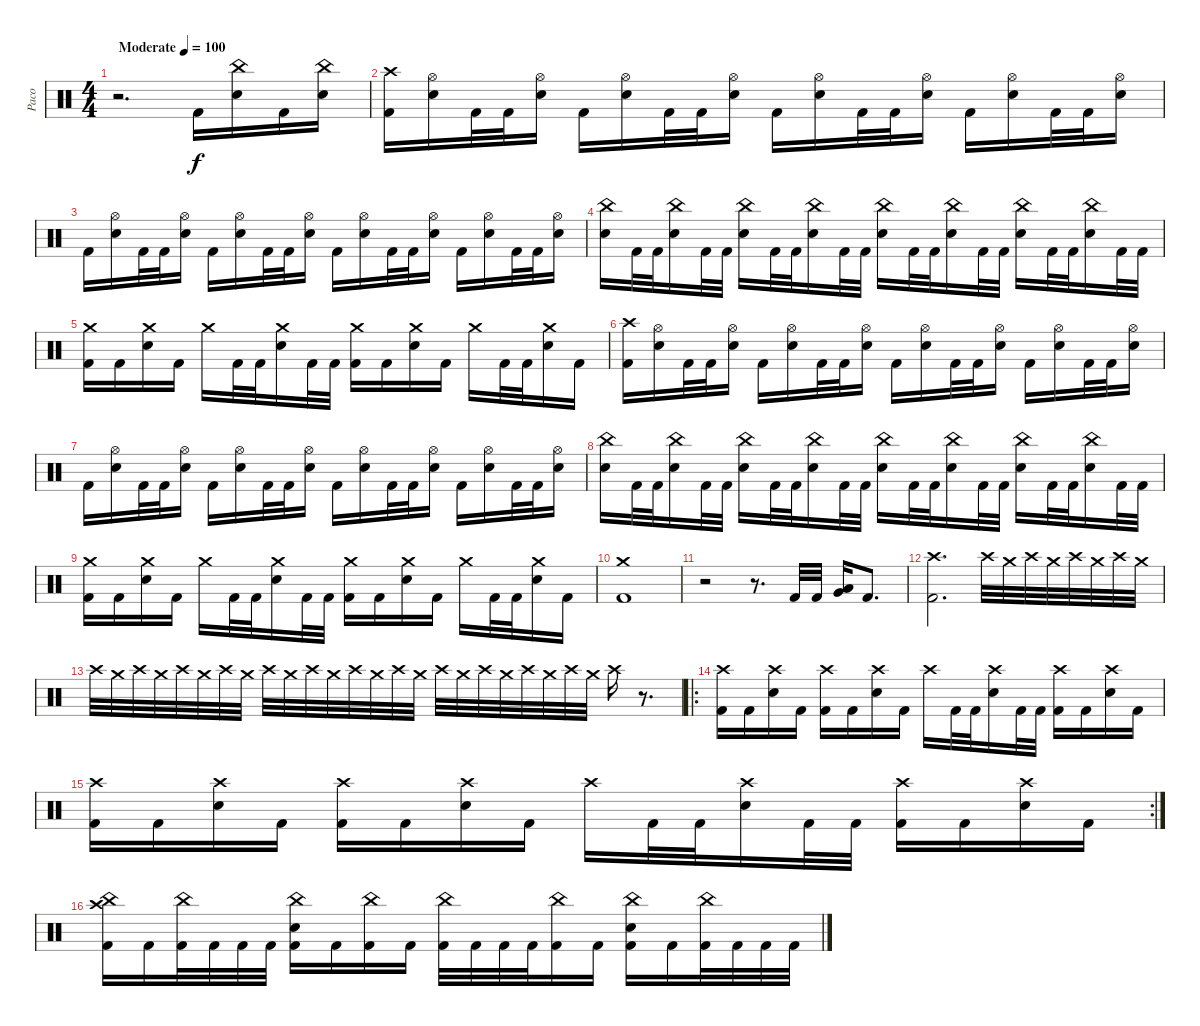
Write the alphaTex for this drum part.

\track ("Paco" "Paco") {instrument percussion}
\staff {score}
\articulation defaults
\ts (4 4)
\tempo (100 "Moderate")
\clef neutral
\ks c
r.2{d dy f} "Kick (hit) 2".16 ("China (hit)" "Electric Snare (hit)").16 "Kick (hit) 2".16 ("China (hit)" "Electric Snare (hit)").16 |
("Crash high (hit)" "Kick (hit) 2").16 ("Hi-Hat (open)" "Electric Snare (hit)").16 "Kick (hit) 2".32 "Kick (hit) 2".32 ("Hi-Hat (open)" "Electric Snare (hit)").16 "Kick (hit) 2".16 ("Hi-Hat (open)" "Electric Snare (hit)").16 "Kick (hit) 2".32 "Kick (hit) 2".32 ("Hi-Hat (open)" "Electric Snare (hit)").16 "Kick (hit) 2".16 ("Hi-Hat (open)" "Electric Snare (hit)").16 "Kick (hit) 2".32 "Kick (hit) 2".32 ("Hi-Hat (open)" "Electric Snare (hit)").16 "Kick (hit) 2".16 ("Hi-Hat (open)" "Electric Snare (hit)").16 "Kick (hit) 2".32 "Kick (hit) 2".32 ("Hi-Hat (open)" "Electric Snare (hit)").16 |
"Kick (hit) 2".16 ("Hi-Hat (open)" "Electric Snare (hit)").16 "Kick (hit) 2".32 "Kick (hit) 2".32 ("Hi-Hat (open)" "Electric Snare (hit)").16 "Kick (hit) 2".16 ("Hi-Hat (open)" "Electric Snare (hit)").16 "Kick (hit) 2".32 "Kick (hit) 2".32 ("Hi-Hat (open)" "Electric Snare (hit)").16 "Kick (hit) 2".16 ("Hi-Hat (open)" "Electric Snare (hit)").16 "Kick (hit) 2".32 "Kick (hit) 2".32 ("Hi-Hat (open)" "Electric Snare (hit)").16 "Kick (hit) 2".16 ("Hi-Hat (open)" "Electric Snare (hit)").16 "Kick (hit) 2".32 "Kick (hit) 2".32 ("Hi-Hat (open)" "Electric Snare (hit)").16 |
("China (hit)" "Electric Snare (hit)").16 "Kick (hit) 2".32 "Kick (hit) 2".32 ("China (hit)" "Electric Snare (hit)").16 "Kick (hit) 2".32 "Kick (hit) 2".32 ("China (hit)" "Electric Snare (hit)").16 "Kick (hit) 2".32 "Kick (hit) 2".32 ("China (hit)" "Electric Snare (hit)").16 "Kick (hit) 2".32 "Kick (hit) 2".32 ("China (hit)" "Electric Snare (hit)").16 "Kick (hit) 2".32 "Kick (hit) 2".32 ("China (hit)" "Electric Snare (hit)").16 "Kick (hit) 2".32 "Kick (hit) 2".32 ("China (hit)" "Electric Snare (hit)").16 "Kick (hit) 2".32 "Kick (hit) 2".32 ("China (hit)" "Electric Snare (hit)").16 "Kick (hit) 2".32 "Kick (hit) 2".32 |
("Crash medium (hit)" "Kick (hit) 2").16 "Kick (hit) 2".16 ("Crash medium (hit)" "Electric Snare (hit)").16 "Kick (hit) 2".16 "Crash medium (hit)".16 "Kick (hit) 2".32 "Kick (hit) 2".32 ("Crash medium (hit)" "Electric Snare (hit)").16 "Kick (hit) 2".32 "Kick (hit) 2".32 ("Crash medium (hit)" "Kick (hit) 2").16 "Kick (hit) 2".16 ("Crash medium (hit)" "Electric Snare (hit)").16 "Kick (hit) 2".16 "Crash medium (hit)".16 "Kick (hit) 2".32 "Kick (hit) 2".32 ("Crash medium (hit)" "Electric Snare (hit)").16 "Kick (hit) 2".16 |
("Crash high (hit)" "Kick (hit) 2").16 ("Hi-Hat (open)" "Electric Snare (hit)").16 "Kick (hit) 2".32 "Kick (hit) 2".32 ("Hi-Hat (open)" "Electric Snare (hit)").16 "Kick (hit) 2".16 ("Hi-Hat (open)" "Electric Snare (hit)").16 "Kick (hit) 2".32 "Kick (hit) 2".32 ("Hi-Hat (open)" "Electric Snare (hit)").16 "Kick (hit) 2".16 ("Hi-Hat (open)" "Electric Snare (hit)").16 "Kick (hit) 2".32 "Kick (hit) 2".32 ("Hi-Hat (open)" "Electric Snare (hit)").16 "Kick (hit) 2".16 ("Hi-Hat (open)" "Electric Snare (hit)").16 "Kick (hit) 2".32 "Kick (hit) 2".32 ("Hi-Hat (open)" "Electric Snare (hit)").16 |
"Kick (hit) 2".16 ("Hi-Hat (open)" "Electric Snare (hit)").16 "Kick (hit) 2".32 "Kick (hit) 2".32 ("Hi-Hat (open)" "Electric Snare (hit)").16 "Kick (hit) 2".16 ("Hi-Hat (open)" "Electric Snare (hit)").16 "Kick (hit) 2".32 "Kick (hit) 2".32 ("Hi-Hat (open)" "Electric Snare (hit)").16 "Kick (hit) 2".16 ("Hi-Hat (open)" "Electric Snare (hit)").16 "Kick (hit) 2".32 "Kick (hit) 2".32 ("Hi-Hat (open)" "Electric Snare (hit)").16 "Kick (hit) 2".16 ("Hi-Hat (open)" "Electric Snare (hit)").16 "Kick (hit) 2".32 "Kick (hit) 2".32 ("Hi-Hat (open)" "Electric Snare (hit)").16 |
("China (hit)" "Electric Snare (hit)").16 "Kick (hit) 2".32 "Kick (hit) 2".32 ("China (hit)" "Electric Snare (hit)").16 "Kick (hit) 2".32 "Kick (hit) 2".32 ("China (hit)" "Electric Snare (hit)").16 "Kick (hit) 2".32 "Kick (hit) 2".32 ("China (hit)" "Electric Snare (hit)").16 "Kick (hit) 2".32 "Kick (hit) 2".32 ("China (hit)" "Electric Snare (hit)").16 "Kick (hit) 2".32 "Kick (hit) 2".32 ("China (hit)" "Electric Snare (hit)").16 "Kick (hit) 2".32 "Kick (hit) 2".32 ("China (hit)" "Electric Snare (hit)").16 "Kick (hit) 2".32 "Kick (hit) 2".32 ("China (hit)" "Electric Snare (hit)").16 "Kick (hit) 2".32 "Kick (hit) 2".32 |
("Crash medium (hit)" "Kick (hit) 2").16 "Kick (hit) 2".16 ("Crash medium (hit)" "Electric Snare (hit)").16 "Kick (hit) 2".16 "Crash medium (hit)".16 "Kick (hit) 2".32 "Kick (hit) 2".32 ("Crash medium (hit)" "Electric Snare (hit)").16 "Kick (hit) 2".32 "Kick (hit) 2".32 ("Crash medium (hit)" "Kick (hit) 2").16 "Kick (hit) 2".16 ("Crash medium (hit)" "Electric Snare (hit)").16 "Kick (hit) 2".16 "Crash medium (hit)".16 "Kick (hit) 2".32 "Kick (hit) 2".32 ("Crash medium (hit)" "Electric Snare (hit)").16 "Kick (hit) 2".16 |
("Crash medium (hit)" "Kick (hit) 2").1 |
r.2 r.8{d} "Kick (hit) 2".32 "Kick (hit) 2".32 ("Low Floor Tom (hit)" "Very Low Tom (hit)").16 "Kick (hit) 2".8{d} |
("Crash high (hit)" "Kick (hit) 2").2{d} "Crash high (hit)".32{volume 2} "Crash medium (hit)".32 "Crash high (hit)".32 "Crash medium (hit)".32 "Crash high (hit)".32 "Crash medium (hit)".32 "Crash high (hit)".32 "Crash medium (hit)".32 |
"Crash high (hit)".32{volume 13} "Crash medium (hit)".32 "Crash high (hit)".32 "Crash medium (hit)".32 "Crash high (hit)".32 "Crash medium (hit)".32 "Crash high (hit)".32 "Crash medium (hit)".32 "Crash high (hit)".32 "Crash medium (hit)".32 "Crash high (hit)".32 "Crash medium (hit)".32 "Crash high (hit)".32 "Crash medium (hit)".32 "Crash high (hit)".32 "Crash medium (hit)".32 "Crash high (hit)".32 "Crash medium (hit)".32 "Crash high (hit)".32 "Crash medium (hit)".32 "Crash high (hit)".32 "Crash medium (hit)".32 "Crash high (hit)".32 "Crash medium (hit)".32 "Crash high (hit)".16 r.8{d volume 0} |
\ro
("Crash high (hit)" "Kick (hit) 2").16{volume 13} "Kick (hit) 2".16 ("Crash high (hit)" "Electric Snare (hit)").16 "Kick (hit) 2".16 ("Crash high (hit)" "Kick (hit) 2").16 "Kick (hit) 2".16 ("Crash high (hit)" "Electric Snare (hit)").16 "Kick (hit) 2".16 "Crash high (hit)".16 "Kick (hit) 2".32 "Kick (hit) 2".32 ("Crash high (hit)" "Electric Snare (hit)").16 "Kick (hit) 2".32 "Kick (hit) 2".32 ("Crash high (hit)" "Kick (hit) 2").16 "Kick (hit) 2".16 ("Crash high (hit)" "Electric Snare (hit)").16 "Kick (hit) 2".16 |
\rc 2
("Crash high (hit)" "Kick (hit) 2").16 "Kick (hit) 2".16 ("Crash high (hit)" "Electric Snare (hit)").16 "Kick (hit) 2".16 ("Crash high (hit)" "Kick (hit) 2").16 "Kick (hit) 2".16 ("Crash high (hit)" "Electric Snare (hit)").16 "Kick (hit) 2".16 "Crash high (hit)".16 "Kick (hit) 2".32 "Kick (hit) 2".32 ("Crash high (hit)" "Electric Snare (hit)").16 "Kick (hit) 2".32 "Kick (hit) 2".32 ("Crash high (hit)" "Kick (hit) 2").16 "Kick (hit) 2".16 ("Crash high (hit)" "Electric Snare (hit)").16 "Kick (hit) 2".16 |
("China (hit)" "Crash high (hit)" "Kick (hit) 2").16 "Kick (hit) 2".16 ("China (hit)" "Kick (hit) 2").32 "Kick (hit) 2".32 "Kick (hit) 2".32 "Kick (hit) 2".32 ("China (hit)" "Electric Snare (hit)" "Kick (hit) 2").16 "Kick (hit) 2".16 ("China (hit)" "Kick (hit) 2").16 "Kick (hit) 2".16 ("China (hit)" "Kick (hit) 2").32 "Kick (hit) 2".32 "Kick (hit) 2".32 "Kick (hit) 2".32 ("China (hit)" "Kick (hit) 2").16 "Kick (hit) 2".16 ("China (hit)" "Electric Snare (hit)" "Kick (hit) 2").16 "Kick (hit) 2".16 ("China (hit)" "Kick (hit) 2").32 "Kick (hit) 2".32 "Kick (hit) 2".32 "Kick (hit) 2".32
